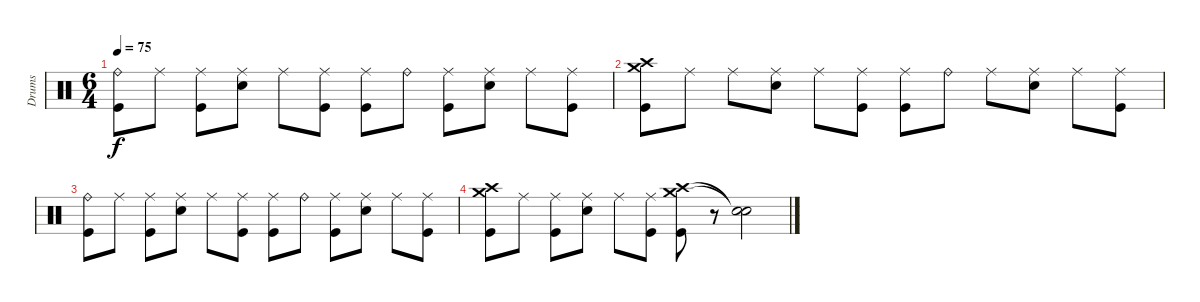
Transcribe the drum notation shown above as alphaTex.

\track ("Drums" "Drums") {instrument percussion}
\staff {score}
\articulation defaults
\ts (6 4)
\tempo 75
\clef neutral
\ks c
("Ride (bell)" "Kick (hit)").8{dy f} "Ride (middle)".8 ("Ride (middle)" "Kick (hit)").8 ("Ride (middle)" "Snare (hit) 2").8 "Ride (middle)".8 ("Ride (middle)" "Kick (hit)").8 ("Ride (middle)" "Kick (hit)").8 "Ride (bell)".8 ("Ride (middle)" "Kick (hit)").8 ("Ride (middle)" "Snare (hit) 2").8 "Ride (middle)".8 ("Ride (middle)" "Kick (hit)").8 |
("Crash high (hit)" "Crash medium (hit)" "Kick (hit)").8 "Ride (middle)".8 "Ride (middle)".8 ("Ride (middle)" "Snare (hit) 2").8 "Ride (middle)".8 ("Ride (middle)" "Kick (hit)").8 ("Ride (middle)" "Kick (hit)").8 "Ride (bell)".8 "Ride (middle)".8 ("Ride (middle)" "Snare (hit) 2").8 "Ride (middle)".8 ("Ride (middle)" "Kick (hit)").8 |
("Ride (bell)" "Kick (hit)").8 "Ride (middle)".8 ("Ride (middle)" "Kick (hit)").8 ("Ride (middle)" "Snare (hit) 2").8 "Ride (middle)".8 ("Ride (middle)" "Kick (hit)").8 ("Ride (middle)" "Kick (hit)").8 "Ride (bell)".8 ("Ride (middle)" "Kick (hit)").8 ("Ride (middle)" "Snare (hit) 2").8 "Ride (middle)".8 ("Ride (middle)" "Kick (hit)").8 |
("Crash high (hit)" "Crash medium (hit)" "Kick (hit)").8 "Ride (middle)".8 ("Ride (middle)" "Kick (hit)").8 ("Ride (middle)" "Snare (hit) 2").8 "Ride (middle)".8 ("Ride (middle)" "Kick (hit)").8 ("Crash high (hit)" "Crash medium (hit)" "Kick (hit)").8 r.8 ("Snare (hit)"{t} "Snare (hit)"{t}).2
